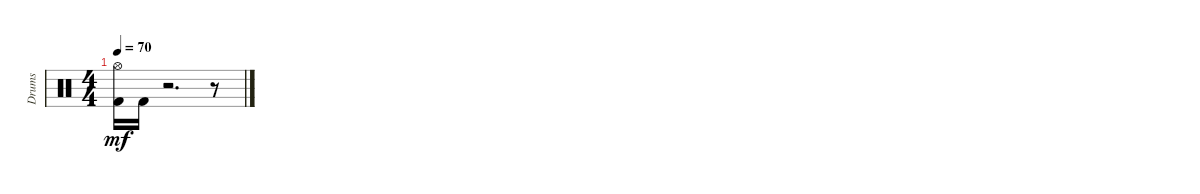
\track ("Drums" "Drums") {instrument percussion}
\staff {score}
\articulation defaults
\ts (4 4)
\tempo 70
\clef neutral
\ks c
("Hi-Hat (open)" "Kick (hit) 2").16{dy mf} "Kick (hit) 2".16 r.2{d} r.8
